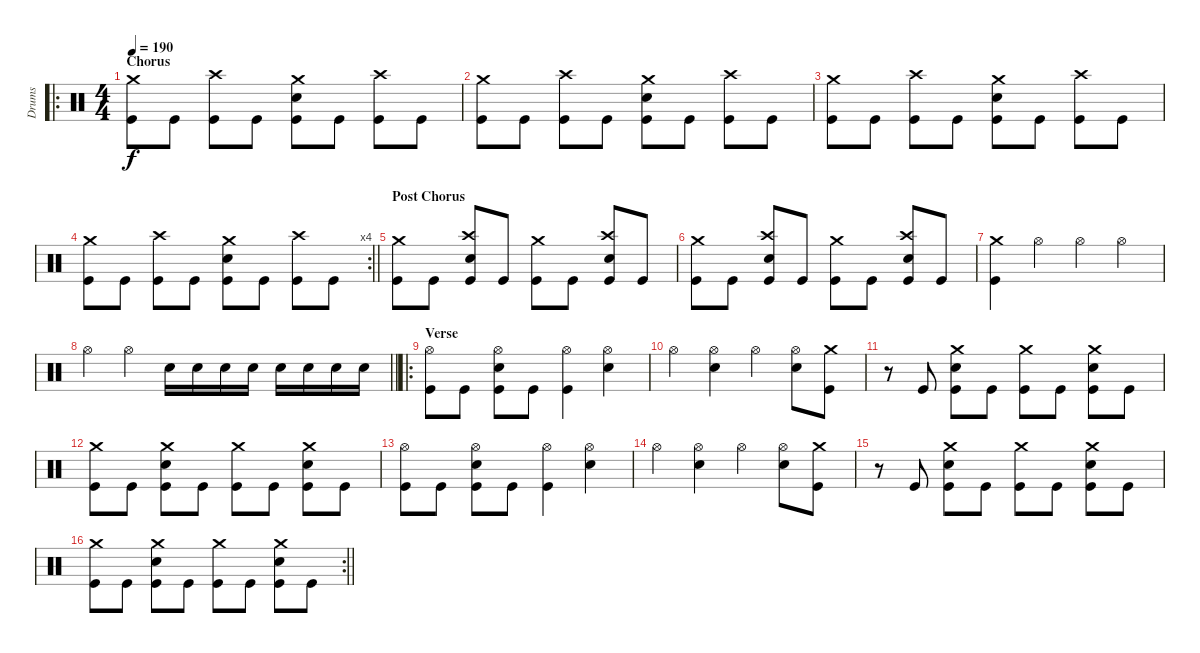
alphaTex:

\track ("Drums" "Drums") {instrument percussion}
\staff {score}
\articulation defaults
\ro
\ts (4 4)
\section ("" "Chorus")
\tempo 190
\clef neutral
\ks c
("Crash medium (hit)" "Kick (hit)").8{dy f} "Kick (hit)".8 ("Crash high (hit)" "Kick (hit)").8 "Kick (hit)".8 ("Crash medium (hit)" "Snare (hit) 2" "Kick (hit)").8 "Kick (hit)".8 ("Crash high (hit)" "Kick (hit)").8 "Kick (hit)".8 |
("Crash medium (hit)" "Kick (hit)").8 "Kick (hit)".8 ("Crash high (hit)" "Kick (hit)").8 "Kick (hit)".8 ("Crash medium (hit)" "Snare (hit) 2" "Kick (hit)").8 "Kick (hit)".8 ("Crash high (hit)" "Kick (hit)").8 "Kick (hit)".8 |
("Crash medium (hit)" "Kick (hit)").8 "Kick (hit)".8 ("Crash high (hit)" "Kick (hit)").8 "Kick (hit)".8 ("Crash medium (hit)" "Snare (hit) 2" "Kick (hit)").8 "Kick (hit)".8 ("Crash high (hit)" "Kick (hit)").8 "Kick (hit)".8 |
\rc 4
\barLineRight lightlight
("Crash medium (hit)" "Kick (hit)").8 "Kick (hit)".8 ("Crash high (hit)" "Kick (hit)").8 "Kick (hit)".8 ("Crash medium (hit)" "Snare (hit) 2" "Kick (hit)").8 "Kick (hit)".8 ("Crash high (hit)" "Kick (hit)").8 "Kick (hit)".8 |
\section ("" "Post Chorus")
("Crash medium (hit)" "Kick (hit)").8 "Kick (hit)".8 ("Crash high (hit)" "Snare (hit) 2" "Kick (hit)").8 "Kick (hit)".8 ("Crash medium (hit)" "Kick (hit)").8 "Kick (hit)".8 ("Crash high (hit)" "Snare (hit) 2" "Kick (hit)").8 "Kick (hit)".8 |
("Crash medium (hit)" "Kick (hit)").8 "Kick (hit)".8 ("Crash high (hit)" "Snare (hit) 2" "Kick (hit)").8 "Kick (hit)".8 ("Crash medium (hit)" "Kick (hit)").8 "Kick (hit)".8 ("Crash high (hit)" "Snare (hit) 2" "Kick (hit)").8 "Kick (hit)".8 |
("Crash medium (hit)" "Kick (hit)").4 "Hi-Hat (open)".4 "Hi-Hat (open)".4 "Hi-Hat (open)".4 |
\barLineRight lightlight "Hi-Hat (open)".4 "Hi-Hat (open)".4 "Snare (hit) 2".16 "Snare (hit) 2".16 "Snare (hit) 2".16 "Snare (hit) 2".16 "Snare (hit) 2".16 "Snare (hit) 2".16 "Snare (hit) 2".16 "Snare (hit) 2".16
|
\ro
\section ("" "Verse")
("Hi-Hat (open)" "Kick (hit)").8 "Kick (hit)".8 ("Hi-Hat (open)" "Snare (hit) 2" "Kick (hit)").8 "Kick (hit)".8 ("Hi-Hat (open)" "Kick (hit)").4 ("Hi-Hat (open)" "Snare (hit) 2").4 |
"Hi-Hat (open)".4 ("Hi-Hat (open)" "Snare (hit) 2").4 "Hi-Hat (open)".4 ("Hi-Hat (open)" "Snare (hit) 2").8 ("Crash medium (hit)" "Kick (hit)").8 |
r.8 "Kick (hit)".8 ("Crash medium (hit)" "Snare (hit) 2" "Kick (hit)").8 "Kick (hit)".8 ("Crash medium (hit)" "Kick (hit)").8 "Kick (hit)".8 ("Crash medium (hit)" "Snare (hit) 2" "Kick (hit)").8 "Kick (hit)".8 |
("Crash medium (hit)" "Kick (hit)").8 "Kick (hit)".8 ("Crash medium (hit)" "Snare (hit) 2" "Kick (hit)").8 "Kick (hit)".8 ("Crash medium (hit)" "Kick (hit)").8 "Kick (hit)".8 ("Crash medium (hit)" "Snare (hit) 2" "Kick (hit)").8 "Kick (hit)".8 |
("Hi-Hat (open)" "Kick (hit)").8 "Kick (hit)".8 ("Hi-Hat (open)" "Snare (hit) 2" "Kick (hit)").8 "Kick (hit)".8 ("Hi-Hat (open)" "Kick (hit)").4 ("Hi-Hat (open)" "Snare (hit) 2").4 |
"Hi-Hat (open)".4 ("Hi-Hat (open)" "Snare (hit) 2").4 "Hi-Hat (open)".4 ("Hi-Hat (open)" "Snare (hit) 2").8 ("Crash medium (hit)" "Kick (hit)").8 |
r.8 "Kick (hit)".8 ("Crash medium (hit)" "Snare (hit) 2" "Kick (hit)").8 "Kick (hit)".8 ("Crash medium (hit)" "Kick (hit)").8 "Kick (hit)".8 ("Crash medium (hit)" "Snare (hit) 2" "Kick (hit)").8 "Kick (hit)".8 |
\rc 2
\barLineRight lightlight
("Crash medium (hit)" "Kick (hit)").8 "Kick (hit)".8 ("Crash medium (hit)" "Snare (hit) 2" "Kick (hit)").8 "Kick (hit)".8 ("Crash medium (hit)" "Kick (hit)").8 "Kick (hit)".8 ("Crash medium (hit)" "Snare (hit) 2" "Kick (hit)").8 "Kick (hit)".8
